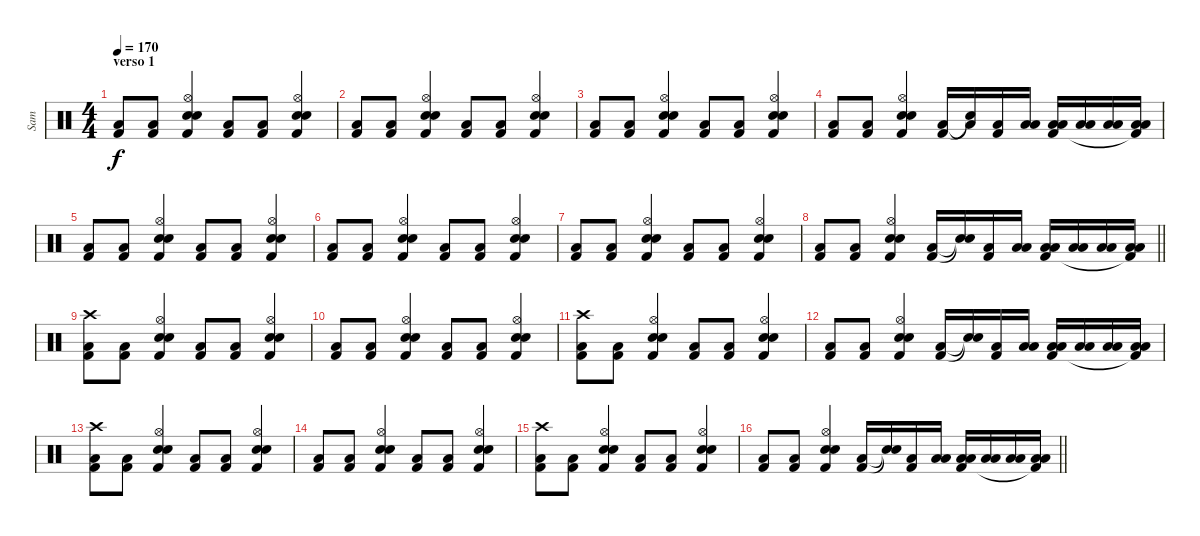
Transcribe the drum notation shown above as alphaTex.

\track ("Sam" "Sam") {instrument percussion}
\staff {score}
\articulation defaults
\ts (4 4)
\section ("" "verso 1")
\tempo 170
\clef neutral
\ks c
("Low Floor Tom (hit)" "Kick (hit) 2").8{dy f volume 10} ("Low Floor Tom (hit)" "Kick (hit) 2").8 ("Hi-Hat (open)" "Snare (hit) 2" "Snare (hit) 2" "Kick (hit) 2").4 ("Low Floor Tom (hit)" "Kick (hit) 2").8 ("Low Floor Tom (hit)" "Kick (hit) 2").8 ("Hi-Hat (open)" "Snare (hit) 2" "Snare (hit) 2" "Kick (hit) 2").4 |
("Low Floor Tom (hit)" "Kick (hit) 2").8 ("Low Floor Tom (hit)" "Kick (hit) 2").8 ("Hi-Hat (open)" "Snare (hit) 2" "Snare (hit) 2" "Kick (hit) 2").4 ("Low Floor Tom (hit)" "Kick (hit) 2").8 ("Low Floor Tom (hit)" "Kick (hit) 2").8 ("Hi-Hat (open)" "Snare (hit) 2" "Snare (hit) 2" "Kick (hit) 2").4 |
("Low Floor Tom (hit)" "Kick (hit) 2").8 ("Low Floor Tom (hit)" "Kick (hit) 2").8 ("Hi-Hat (open)" "Snare (hit) 2" "Snare (hit) 2" "Kick (hit) 2").4 ("Low Floor Tom (hit)" "Kick (hit) 2").8 ("Low Floor Tom (hit)" "Kick (hit) 2").8 ("Hi-Hat (open)" "Snare (hit) 2" "Snare (hit) 2" "Kick (hit) 2").4 |
("Low Floor Tom (hit)" "Kick (hit) 2").8 ("Low Floor Tom (hit)" "Kick (hit) 2").8 ("Hi-Hat (open)" "Snare (hit) 2" "Snare (hit) 2" "Kick (hit) 2").4 ("Low Floor Tom (hit)" "Kick (hit) 2").16 ("Low Floor Tom (hit)"{t} "Snare (hit)"{t}).16 ("Low Floor Tom (hit)" "Kick (hit) 2").16 ("Low Floor Tom (hit)" "Low Tom (hit)").16 ("Low Floor Tom (hit)" "Low Tom (hit)" "Kick (hit) 2").16 ("Low Floor Tom (hit)" "Low Tom (hit)").16 ("Low Floor Tom (hit)" "Low Tom (hit)").16 ("Low Floor Tom (hit)" "Low Tom (hit)" "Kick (hit) 2"{t}).16 |
("Low Floor Tom (hit)" "Kick (hit) 2").8 ("Low Floor Tom (hit)" "Kick (hit) 2").8 ("Hi-Hat (open)" "Snare (hit) 2" "Snare (hit) 2" "Kick (hit) 2").4 ("Low Floor Tom (hit)" "Kick (hit) 2").8 ("Low Floor Tom (hit)" "Kick (hit) 2").8 ("Hi-Hat (open)" "Snare (hit) 2" "Snare (hit) 2" "Kick (hit) 2").4 |
("Low Floor Tom (hit)" "Kick (hit) 2").8 ("Low Floor Tom (hit)" "Kick (hit) 2").8 ("Hi-Hat (open)" "Snare (hit) 2" "Snare (hit) 2" "Kick (hit) 2").4 ("Low Floor Tom (hit)" "Kick (hit) 2").8 ("Low Floor Tom (hit)" "Kick (hit) 2").8 ("Hi-Hat (open)" "Snare (hit) 2" "Snare (hit) 2" "Kick (hit) 2").4 |
("Low Floor Tom (hit)" "Kick (hit) 2").8 ("Low Floor Tom (hit)" "Kick (hit) 2").8 ("Hi-Hat (open)" "Snare (hit) 2" "Snare (hit) 2" "Kick (hit) 2").4 ("Low Floor Tom (hit)" "Kick (hit) 2").8 ("Low Floor Tom (hit)" "Kick (hit) 2").8 ("Hi-Hat (open)" "Snare (hit) 2" "Snare (hit) 2" "Kick (hit) 2").4 |
\barLineRight lightlight
("Low Floor Tom (hit)" "Kick (hit) 2").8 ("Low Floor Tom (hit)" "Kick (hit) 2").8 ("Hi-Hat (open)" "Snare (hit) 2" "Snare (hit) 2" "Kick (hit) 2").4 ("Low Floor Tom (hit)" "Kick (hit) 2").16 ("Snare (hit)"{t} "Snare (hit)"{t}).16 ("Low Floor Tom (hit)" "Kick (hit) 2").16 ("Low Floor Tom (hit)" "Low Tom (hit)").16 ("Low Floor Tom (hit)" "Low Tom (hit)" "Kick (hit) 2").16 ("Low Floor Tom (hit)" "Low Tom (hit)").16 ("Low Floor Tom (hit)" "Low Tom (hit)").16 ("Low Floor Tom (hit)" "Low Tom (hit)" "Kick (hit) 2"{t}).16 |
("Crash high (hit)" "Low Floor Tom (hit)" "Kick (hit) 2").8 ("Low Floor Tom (hit)" "Kick (hit) 2").8 ("Hi-Hat (open)" "Snare (hit) 2" "Snare (hit) 2" "Kick (hit) 2").4 ("Low Floor Tom (hit)" "Kick (hit) 2").8 ("Low Floor Tom (hit)" "Kick (hit) 2").8 ("Hi-Hat (open)" "Snare (hit) 2" "Snare (hit) 2" "Kick (hit) 2").4 |
("Low Floor Tom (hit)" "Kick (hit) 2").8 ("Low Floor Tom (hit)" "Kick (hit) 2").8 ("Hi-Hat (open)" "Snare (hit) 2" "Snare (hit) 2" "Kick (hit) 2").4 ("Low Floor Tom (hit)" "Kick (hit) 2").8 ("Low Floor Tom (hit)" "Kick (hit) 2").8 ("Hi-Hat (open)" "Snare (hit) 2" "Snare (hit) 2" "Kick (hit) 2").4 |
("Crash high (hit)" "Low Floor Tom (hit)" "Kick (hit) 2").8 ("Low Floor Tom (hit)" "Kick (hit) 2").8 ("Hi-Hat (open)" "Snare (hit) 2" "Snare (hit) 2" "Kick (hit) 2").4 ("Low Floor Tom (hit)" "Kick (hit) 2").8 ("Low Floor Tom (hit)" "Kick (hit) 2").8 ("Hi-Hat (open)" "Snare (hit) 2" "Snare (hit) 2" "Kick (hit) 2").4 |
("Low Floor Tom (hit)" "Kick (hit) 2").8 ("Low Floor Tom (hit)" "Kick (hit) 2").8 ("Hi-Hat (open)" "Snare (hit) 2" "Snare (hit) 2" "Kick (hit) 2").4 ("Low Floor Tom (hit)" "Kick (hit) 2").16 ("Snare (hit)"{t} "Snare (hit)"{t}).16 ("Low Floor Tom (hit)" "Kick (hit) 2").16 ("Low Floor Tom (hit)" "Low Tom (hit)").16 ("Low Floor Tom (hit)" "Low Tom (hit)" "Kick (hit) 2").16 ("Low Floor Tom (hit)" "Low Tom (hit)").16 ("Low Floor Tom (hit)" "Low Tom (hit)").16 ("Low Floor Tom (hit)" "Low Tom (hit)" "Kick (hit) 2"{t}).16 |
("Crash high (hit)" "Low Floor Tom (hit)" "Kick (hit) 2").8 ("Low Floor Tom (hit)" "Kick (hit) 2").8 ("Hi-Hat (open)" "Snare (hit) 2" "Snare (hit) 2" "Kick (hit) 2").4 ("Low Floor Tom (hit)" "Kick (hit) 2").8 ("Low Floor Tom (hit)" "Kick (hit) 2").8 ("Hi-Hat (open)" "Snare (hit) 2" "Snare (hit) 2" "Kick (hit) 2").4 |
("Low Floor Tom (hit)" "Kick (hit) 2").8 ("Low Floor Tom (hit)" "Kick (hit) 2").8 ("Hi-Hat (open)" "Snare (hit) 2" "Snare (hit) 2" "Kick (hit) 2").4 ("Low Floor Tom (hit)" "Kick (hit) 2").8 ("Low Floor Tom (hit)" "Kick (hit) 2").8 ("Hi-Hat (open)" "Snare (hit) 2" "Snare (hit) 2" "Kick (hit) 2").4 |
("Crash high (hit)" "Low Floor Tom (hit)" "Kick (hit) 2").8 ("Low Floor Tom (hit)" "Kick (hit) 2").8 ("Hi-Hat (open)" "Snare (hit) 2" "Snare (hit) 2" "Kick (hit) 2").4 ("Low Floor Tom (hit)" "Kick (hit) 2").8 ("Low Floor Tom (hit)" "Kick (hit) 2").8 ("Hi-Hat (open)" "Snare (hit) 2" "Snare (hit) 2" "Kick (hit) 2").4 |
\barLineRight lightlight
("Low Floor Tom (hit)" "Kick (hit) 2").8 ("Low Floor Tom (hit)" "Kick (hit) 2").8 ("Hi-Hat (open)" "Snare (hit) 2" "Snare (hit) 2" "Kick (hit) 2").4 ("Low Floor Tom (hit)" "Kick (hit) 2").16 ("Snare (hit)"{t} "Snare (hit)"{t}).16 ("Low Floor Tom (hit)" "Kick (hit) 2").16 ("Low Floor Tom (hit)" "Low Tom (hit)").16 ("Low Floor Tom (hit)" "Low Tom (hit)" "Kick (hit) 2").16 ("Low Floor Tom (hit)" "Low Tom (hit)").16 ("Low Floor Tom (hit)" "Low Tom (hit)").16 ("Low Floor Tom (hit)" "Low Tom (hit)" "Kick (hit) 2"{t}).16
